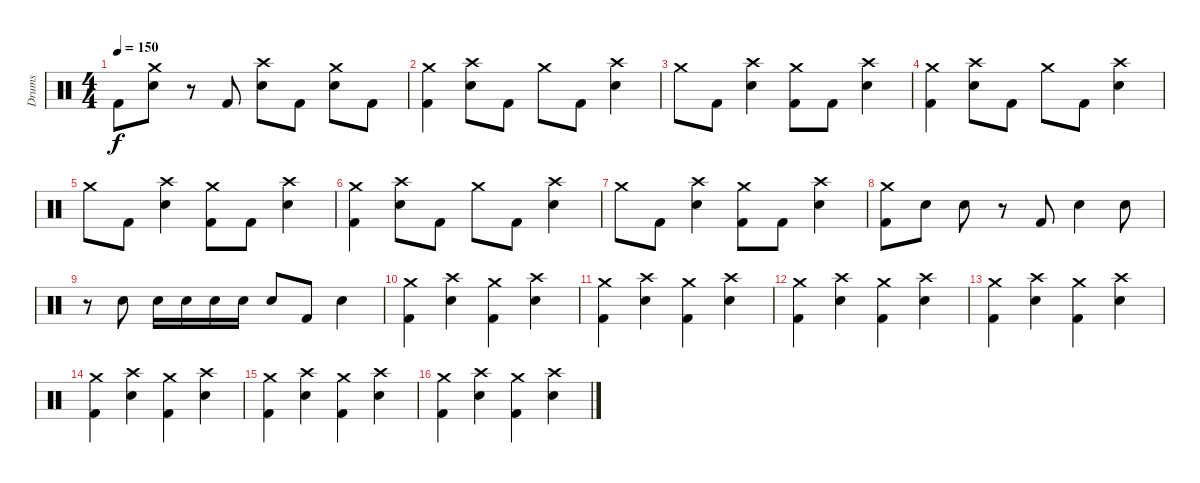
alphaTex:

\track ("Drums" "Drums") {instrument percussion}
\staff {score}
\articulation defaults
\ts (4 4)
\tempo 150
\clef neutral
\ks c "Kick (hit) 2".8{dy f}
("Crash medium (hit)" "Snare (hit) 2").8 r.8 "Kick (hit) 2".8 ("Crash high (hit)" "Snare (hit) 2").8 "Kick (hit) 2".8 ("Crash medium (hit)" "Snare (hit) 2").8 "Kick (hit) 2".8 |
("Crash medium (hit)" "Kick (hit) 2").4 ("Crash high (hit)" "Snare (hit) 2").8 "Kick (hit) 2".8 "Crash medium (hit)".8 "Kick (hit) 2".8 ("Crash high (hit)" "Snare (hit) 2").4 |
"Crash medium (hit)".8 "Kick (hit) 2".8 ("Crash high (hit)" "Snare (hit) 2").4 ("Crash medium (hit)" "Kick (hit) 2").8 "Kick (hit) 2".8 ("Crash high (hit)" "Snare (hit) 2").4 |
("Crash medium (hit)" "Kick (hit) 2").4 ("Crash high (hit)" "Snare (hit) 2").8 "Kick (hit) 2".8 "Crash medium (hit)".8 "Kick (hit) 2".8 ("Crash high (hit)" "Snare (hit) 2").4 |
"Crash medium (hit)".8 "Kick (hit) 2".8 ("Crash high (hit)" "Snare (hit) 2").4 ("Crash medium (hit)" "Kick (hit) 2").8 "Kick (hit) 2".8 ("Crash high (hit)" "Snare (hit) 2").4 |
("Crash medium (hit)" "Kick (hit) 2").4 ("Crash high (hit)" "Snare (hit) 2").8 "Kick (hit) 2".8 "Crash medium (hit)".8 "Kick (hit) 2".8 ("Crash high (hit)" "Snare (hit) 2").4 |
"Crash medium (hit)".8 "Kick (hit) 2".8 ("Crash high (hit)" "Snare (hit) 2").4 ("Crash medium (hit)" "Kick (hit) 2").8 "Kick (hit) 2".8 ("Crash high (hit)" "Snare (hit) 2").4 |
("Crash medium (hit)" "Kick (hit) 2").8 "Electric Snare (hit)".8 "Electric Snare (hit)".8 r.8 "Kick (hit) 2".8 "Snare (hit) 2".4 "Snare (hit) 2".8 |
r.8 "Electric Snare (hit)".8 "Snare (hit) 2".16 "Snare (hit) 2".16 "Snare (hit) 2".16 "Snare (hit) 2".16 "Snare (hit) 2".8 "Kick (hit) 2".8 "Snare (hit) 2".4 |
("Crash medium (hit)" "Kick (hit) 2").4 ("Crash high (hit)" "Snare (hit) 2").4 ("Crash medium (hit)" "Kick (hit) 2").4 ("Crash high (hit)" "Snare (hit) 2").4 |
("Crash medium (hit)" "Kick (hit) 2").4 ("Crash high (hit)" "Snare (hit) 2").4 ("Crash medium (hit)" "Kick (hit) 2").4 ("Crash high (hit)" "Snare (hit) 2").4 |
("Crash medium (hit)" "Kick (hit) 2").4 ("Crash high (hit)" "Snare (hit) 2").4 ("Crash medium (hit)" "Kick (hit) 2").4 ("Crash high (hit)" "Snare (hit) 2").4 |
("Crash medium (hit)" "Kick (hit) 2").4 ("Crash high (hit)" "Snare (hit) 2").4 ("Crash medium (hit)" "Kick (hit) 2").4 ("Crash high (hit)" "Snare (hit) 2").4 |
("Crash medium (hit)" "Kick (hit) 2").4 ("Crash high (hit)" "Snare (hit) 2").4 ("Crash medium (hit)" "Kick (hit) 2").4 ("Crash high (hit)" "Snare (hit) 2").4 |
("Crash medium (hit)" "Kick (hit) 2").4 ("Crash high (hit)" "Snare (hit) 2").4 ("Crash medium (hit)" "Kick (hit) 2").4 ("Crash high (hit)" "Snare (hit) 2").4 |
("Crash medium (hit)" "Kick (hit) 2").4 ("Crash high (hit)" "Snare (hit) 2").4 ("Crash medium (hit)" "Kick (hit) 2").4 ("Crash high (hit)" "Snare (hit) 2").4
